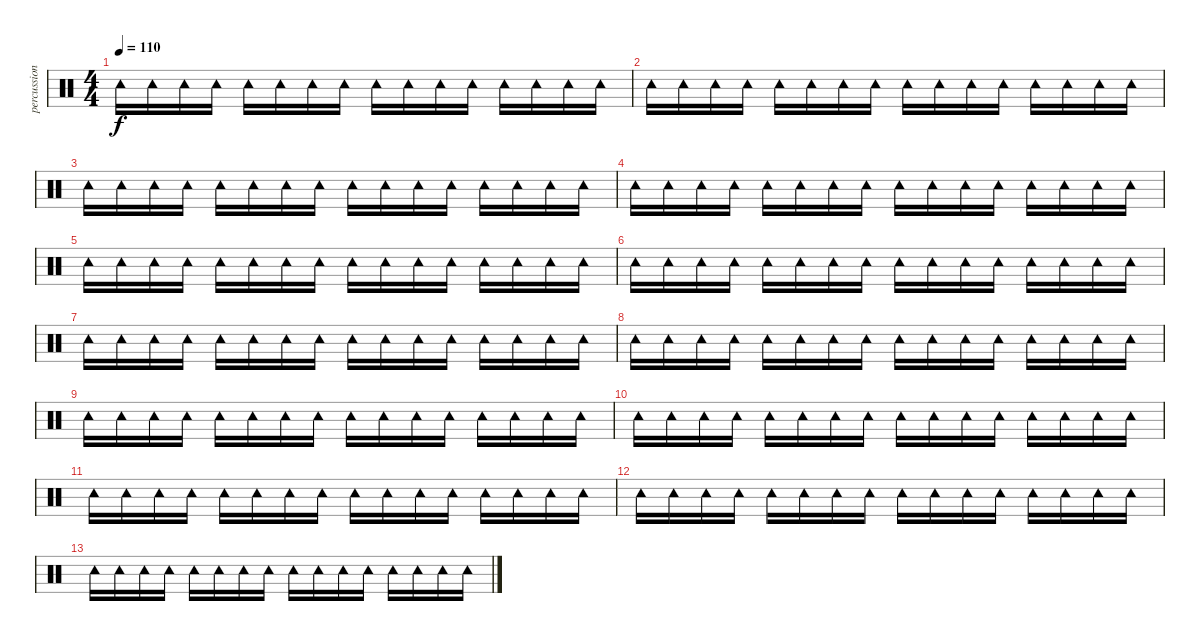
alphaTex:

\track ("percussioni" "percussion") {instrument percussion}
\staff {score}
\articulation defaults
\ts (4 4)
\tempo 110
\clef neutral
\ks c "Tambourine (hit)".16{dy f} "Tambourine (hit)".16 "Tambourine (hit)".16 "Tambourine (hit)".16 "Tambourine (hit)".16 "Tambourine (hit)".16 "Tambourine (hit)".16 "Tambourine (hit)".16 "Tambourine (hit)".16 "Tambourine (hit)".16 "Tambourine (hit)".16 "Tambourine (hit)".16 "Tambourine (hit)".16 "Tambourine (hit)".16 "Tambourine (hit)".16 "Tambourine (hit)".16
|
"Tambourine (hit)".16 "Tambourine (hit)".16 "Tambourine (hit)".16 "Tambourine (hit)".16 "Tambourine (hit)".16 "Tambourine (hit)".16 "Tambourine (hit)".16 "Tambourine (hit)".16 "Tambourine (hit)".16 "Tambourine (hit)".16 "Tambourine (hit)".16 "Tambourine (hit)".16 "Tambourine (hit)".16 "Tambourine (hit)".16 "Tambourine (hit)".16 "Tambourine (hit)".16 |
"Tambourine (hit)".16 "Tambourine (hit)".16 "Tambourine (hit)".16 "Tambourine (hit)".16 "Tambourine (hit)".16 "Tambourine (hit)".16 "Tambourine (hit)".16 "Tambourine (hit)".16 "Tambourine (hit)".16 "Tambourine (hit)".16 "Tambourine (hit)".16 "Tambourine (hit)".16 "Tambourine (hit)".16 "Tambourine (hit)".16 "Tambourine (hit)".16 "Tambourine (hit)".16 |
"Tambourine (hit)".16 "Tambourine (hit)".16 "Tambourine (hit)".16 "Tambourine (hit)".16 "Tambourine (hit)".16 "Tambourine (hit)".16 "Tambourine (hit)".16 "Tambourine (hit)".16 "Tambourine (hit)".16 "Tambourine (hit)".16 "Tambourine (hit)".16 "Tambourine (hit)".16 "Tambourine (hit)".16 "Tambourine (hit)".16 "Tambourine (hit)".16 "Tambourine (hit)".16 |
"Tambourine (hit)".16 "Tambourine (hit)".16 "Tambourine (hit)".16 "Tambourine (hit)".16 "Tambourine (hit)".16 "Tambourine (hit)".16 "Tambourine (hit)".16 "Tambourine (hit)".16 "Tambourine (hit)".16 "Tambourine (hit)".16 "Tambourine (hit)".16 "Tambourine (hit)".16 "Tambourine (hit)".16 "Tambourine (hit)".16 "Tambourine (hit)".16 "Tambourine (hit)".16 |
"Tambourine (hit)".16 "Tambourine (hit)".16 "Tambourine (hit)".16 "Tambourine (hit)".16 "Tambourine (hit)".16 "Tambourine (hit)".16 "Tambourine (hit)".16 "Tambourine (hit)".16 "Tambourine (hit)".16 "Tambourine (hit)".16 "Tambourine (hit)".16 "Tambourine (hit)".16 "Tambourine (hit)".16 "Tambourine (hit)".16 "Tambourine (hit)".16 "Tambourine (hit)".16 |
"Tambourine (hit)".16 "Tambourine (hit)".16 "Tambourine (hit)".16 "Tambourine (hit)".16 "Tambourine (hit)".16 "Tambourine (hit)".16 "Tambourine (hit)".16 "Tambourine (hit)".16 "Tambourine (hit)".16 "Tambourine (hit)".16 "Tambourine (hit)".16 "Tambourine (hit)".16 "Tambourine (hit)".16 "Tambourine (hit)".16 "Tambourine (hit)".16 "Tambourine (hit)".16 |
"Tambourine (hit)".16 "Tambourine (hit)".16 "Tambourine (hit)".16 "Tambourine (hit)".16 "Tambourine (hit)".16 "Tambourine (hit)".16 "Tambourine (hit)".16 "Tambourine (hit)".16 "Tambourine (hit)".16 "Tambourine (hit)".16 "Tambourine (hit)".16 "Tambourine (hit)".16 "Tambourine (hit)".16 "Tambourine (hit)".16 "Tambourine (hit)".16 "Tambourine (hit)".16 |
"Tambourine (hit)".16 "Tambourine (hit)".16 "Tambourine (hit)".16 "Tambourine (hit)".16 "Tambourine (hit)".16 "Tambourine (hit)".16 "Tambourine (hit)".16 "Tambourine (hit)".16 "Tambourine (hit)".16 "Tambourine (hit)".16 "Tambourine (hit)".16 "Tambourine (hit)".16 "Tambourine (hit)".16 "Tambourine (hit)".16 "Tambourine (hit)".16 "Tambourine (hit)".16 |
"Tambourine (hit)".16 "Tambourine (hit)".16 "Tambourine (hit)".16 "Tambourine (hit)".16 "Tambourine (hit)".16 "Tambourine (hit)".16 "Tambourine (hit)".16 "Tambourine (hit)".16 "Tambourine (hit)".16 "Tambourine (hit)".16 "Tambourine (hit)".16 "Tambourine (hit)".16 "Tambourine (hit)".16 "Tambourine (hit)".16 "Tambourine (hit)".16 "Tambourine (hit)".16 |
"Tambourine (hit)".16 "Tambourine (hit)".16 "Tambourine (hit)".16 "Tambourine (hit)".16 "Tambourine (hit)".16 "Tambourine (hit)".16 "Tambourine (hit)".16 "Tambourine (hit)".16 "Tambourine (hit)".16 "Tambourine (hit)".16 "Tambourine (hit)".16 "Tambourine (hit)".16 "Tambourine (hit)".16 "Tambourine (hit)".16 "Tambourine (hit)".16 "Tambourine (hit)".16 |
"Tambourine (hit)".16 "Tambourine (hit)".16 "Tambourine (hit)".16 "Tambourine (hit)".16 "Tambourine (hit)".16 "Tambourine (hit)".16 "Tambourine (hit)".16 "Tambourine (hit)".16 "Tambourine (hit)".16 "Tambourine (hit)".16 "Tambourine (hit)".16 "Tambourine (hit)".16 "Tambourine (hit)".16 "Tambourine (hit)".16 "Tambourine (hit)".16 "Tambourine (hit)".16 |
"Tambourine (hit)".16 "Tambourine (hit)".16 "Tambourine (hit)".16 "Tambourine (hit)".16 "Tambourine (hit)".16 "Tambourine (hit)".16 "Tambourine (hit)".16 "Tambourine (hit)".16 "Tambourine (hit)".16 "Tambourine (hit)".16 "Tambourine (hit)".16 "Tambourine (hit)".16 "Tambourine (hit)".16 "Tambourine (hit)".16 "Tambourine (hit)".16 "Tambourine (hit)".16
